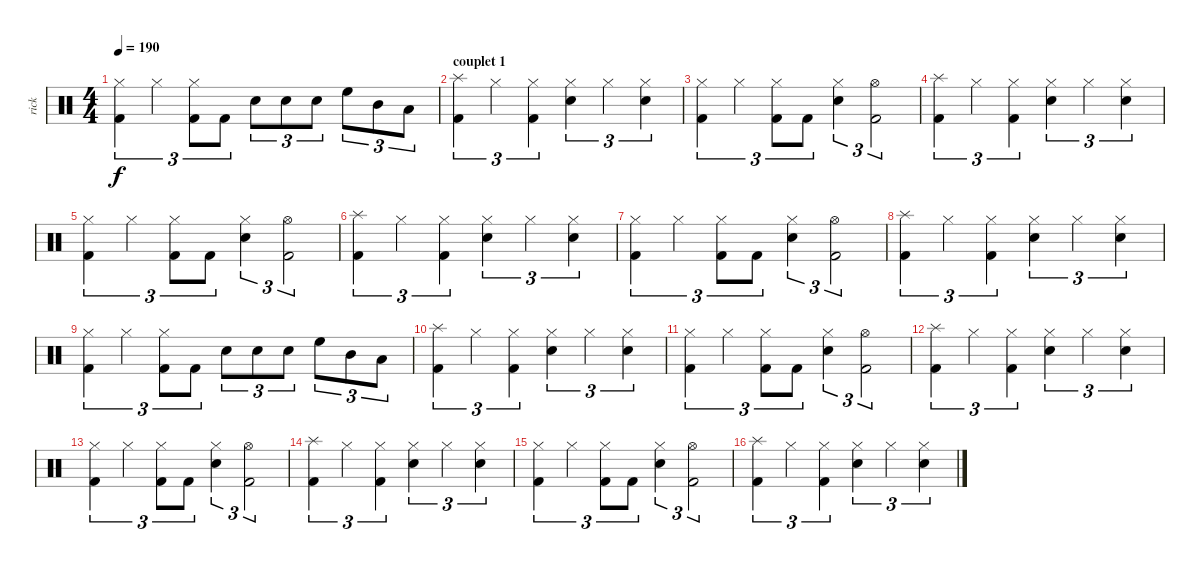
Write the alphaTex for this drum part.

\track ("rick" "rick") {instrument percussion}
\staff {score}
\articulation defaults
\ts (4 4)
\tempo 190
\clef neutral
\ks c
("Hi-Hat (closed)" "Kick (hit) 2").4{tu (3 2) dy f} "Hi-Hat (closed)".4{tu (3 2)} ("Hi-Hat (closed)" "Kick (hit) 2").8{tu (3 2)} "Kick (hit) 2".8{tu (3 2)} "Snare (hit) 2".8{tu (3 2)} "Snare (hit) 2".8{tu (3 2)} "Snare (hit) 2".8{tu (3 2)} "High Floor Tom (hit)".8{tu (3 2)} "Mid Tom (hit)".8{tu (3 2)} "Low Floor Tom (hit)".8{tu (3 2)} |
\section ("" "couplet 1")
("Splash (hit)" "Kick (hit) 2").4{tu (3 2)} "Hi-Hat (closed)".4{tu (3 2)} ("Hi-Hat (closed)" "Kick (hit) 2").4{tu (3 2)} ("Hi-Hat (closed)" "Snare (hit) 2").4{tu (3 2)} "Hi-Hat (closed)".4{tu (3 2)} ("Hi-Hat (closed)" "Snare (hit) 2").4{tu (3 2)} |
("Hi-Hat (closed)" "Kick (hit) 2").4{tu (3 2)} "Hi-Hat (closed)".4{tu (3 2)} ("Hi-Hat (closed)" "Kick (hit) 2").8{tu (3 2)} "Kick (hit) 2".8{tu (3 2)} ("Hi-Hat (closed)" "Snare (hit) 2").4{tu (3 2)} ("Hi-Hat (open)" "Kick (hit) 2").2{tu (3 2)} |
("Splash (hit)" "Kick (hit) 2").4{tu (3 2)} "Hi-Hat (closed)".4{tu (3 2)} ("Hi-Hat (closed)" "Kick (hit) 2").4{tu (3 2)} ("Hi-Hat (closed)" "Snare (hit) 2").4{tu (3 2)} "Hi-Hat (closed)".4{tu (3 2)} ("Hi-Hat (closed)" "Snare (hit) 2").4{tu (3 2)} |
("Hi-Hat (closed)" "Kick (hit) 2").4{tu (3 2)} "Hi-Hat (closed)".4{tu (3 2)} ("Hi-Hat (closed)" "Kick (hit) 2").8{tu (3 2)} "Kick (hit) 2".8{tu (3 2)} ("Hi-Hat (closed)" "Snare (hit) 2").4{tu (3 2)} ("Hi-Hat (open)" "Kick (hit) 2").2{tu (3 2)} |
("Splash (hit)" "Kick (hit) 2").4{tu (3 2)} "Hi-Hat (closed)".4{tu (3 2)} ("Hi-Hat (closed)" "Kick (hit) 2").4{tu (3 2)} ("Hi-Hat (closed)" "Snare (hit) 2").4{tu (3 2)} "Hi-Hat (closed)".4{tu (3 2)} ("Hi-Hat (closed)" "Snare (hit) 2").4{tu (3 2)} |
("Hi-Hat (closed)" "Kick (hit) 2").4{tu (3 2)} "Hi-Hat (closed)".4{tu (3 2)} ("Hi-Hat (closed)" "Kick (hit) 2").8{tu (3 2)} "Kick (hit) 2".8{tu (3 2)} ("Hi-Hat (closed)" "Snare (hit) 2").4{tu (3 2)} ("Hi-Hat (open)" "Kick (hit) 2").2{tu (3 2)} |
("Splash (hit)" "Kick (hit) 2").4{tu (3 2)} "Hi-Hat (closed)".4{tu (3 2)} ("Hi-Hat (closed)" "Kick (hit) 2").4{tu (3 2)} ("Hi-Hat (closed)" "Snare (hit) 2").4{tu (3 2)} "Hi-Hat (closed)".4{tu (3 2)} ("Hi-Hat (closed)" "Snare (hit) 2").4{tu (3 2)} |
("Hi-Hat (closed)" "Kick (hit) 2").4{tu (3 2)} "Hi-Hat (closed)".4{tu (3 2)} ("Hi-Hat (closed)" "Kick (hit) 2").8{tu (3 2)} "Kick (hit) 2".8{tu (3 2)} "Snare (hit) 2".8{tu (3 2)} "Snare (hit) 2".8{tu (3 2)} "Snare (hit) 2".8{tu (3 2)} "High Floor Tom (hit)".8{tu (3 2)} "Mid Tom (hit)".8{tu (3 2)} "Low Floor Tom (hit)".8{tu (3 2)} |
("Splash (hit)" "Kick (hit) 2").4{tu (3 2)} "Hi-Hat (closed)".4{tu (3 2)} ("Hi-Hat (closed)" "Kick (hit) 2").4{tu (3 2)} ("Hi-Hat (closed)" "Snare (hit) 2").4{tu (3 2)} "Hi-Hat (closed)".4{tu (3 2)} ("Hi-Hat (closed)" "Snare (hit) 2").4{tu (3 2)} |
("Hi-Hat (closed)" "Kick (hit) 2").4{tu (3 2)} "Hi-Hat (closed)".4{tu (3 2)} ("Hi-Hat (closed)" "Kick (hit) 2").8{tu (3 2)} "Kick (hit) 2".8{tu (3 2)} ("Hi-Hat (closed)" "Snare (hit) 2").4{tu (3 2)} ("Hi-Hat (open)" "Kick (hit) 2").2{tu (3 2)} |
("Splash (hit)" "Kick (hit) 2").4{tu (3 2)} "Hi-Hat (closed)".4{tu (3 2)} ("Hi-Hat (closed)" "Kick (hit) 2").4{tu (3 2)} ("Hi-Hat (closed)" "Snare (hit) 2").4{tu (3 2)} "Hi-Hat (closed)".4{tu (3 2)} ("Hi-Hat (closed)" "Snare (hit) 2").4{tu (3 2)} |
("Hi-Hat (closed)" "Kick (hit) 2").4{tu (3 2)} "Hi-Hat (closed)".4{tu (3 2)} ("Hi-Hat (closed)" "Kick (hit) 2").8{tu (3 2)} "Kick (hit) 2".8{tu (3 2)} ("Hi-Hat (closed)" "Snare (hit) 2").4{tu (3 2)} ("Hi-Hat (open)" "Kick (hit) 2").2{tu (3 2)} |
("Splash (hit)" "Kick (hit) 2").4{tu (3 2)} "Hi-Hat (closed)".4{tu (3 2)} ("Hi-Hat (closed)" "Kick (hit) 2").4{tu (3 2)} ("Hi-Hat (closed)" "Snare (hit) 2").4{tu (3 2)} "Hi-Hat (closed)".4{tu (3 2)} ("Hi-Hat (closed)" "Snare (hit) 2").4{tu (3 2)} |
("Hi-Hat (closed)" "Kick (hit) 2").4{tu (3 2)} "Hi-Hat (closed)".4{tu (3 2)} ("Hi-Hat (closed)" "Kick (hit) 2").8{tu (3 2)} "Kick (hit) 2".8{tu (3 2)} ("Hi-Hat (closed)" "Snare (hit) 2").4{tu (3 2)} ("Hi-Hat (open)" "Kick (hit) 2").2{tu (3 2)} |
("Splash (hit)" "Kick (hit) 2").4{tu (3 2)} "Hi-Hat (closed)".4{tu (3 2)} ("Hi-Hat (closed)" "Kick (hit) 2").4{tu (3 2)} ("Hi-Hat (closed)" "Snare (hit) 2").4{tu (3 2)} "Hi-Hat (closed)".4{tu (3 2)} ("Hi-Hat (closed)" "Snare (hit) 2").4{tu (3 2)}
